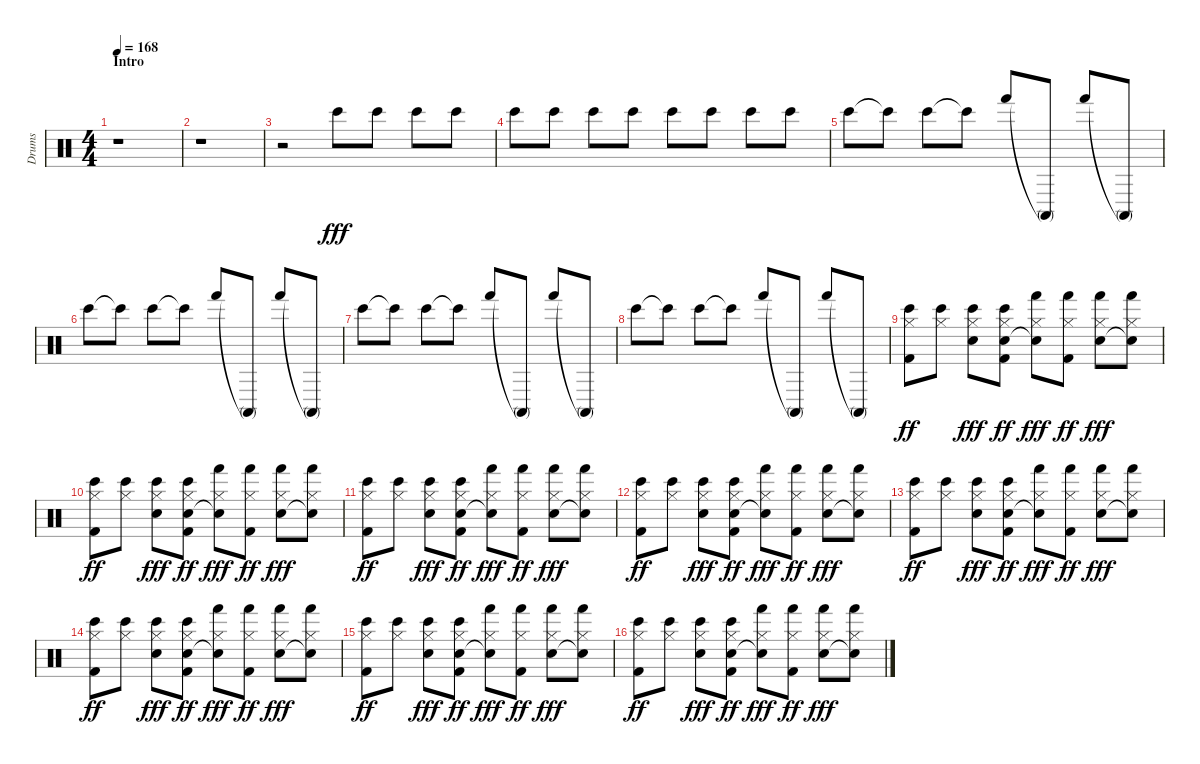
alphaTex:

\track ("Drums" "Drums") {instrument percussion}
\staff {score}
\articulation defaults
\ts (4 4)
\section ("" "Intro")
\tempo 168
\clef neutral
\ks c
r.1{dy fff} |
r.1 |
r.2{volume 8} "Bongo High (hit)".8{volume 15} "Bongo High (hit)".8 "Bongo High (hit)".8 "Bongo High (hit)".8 |
"Bongo High (hit)".8 "Bongo High (hit)".8 "Bongo High (hit)".8 "Bongo High (hit)".8 "Bongo High (hit)".8 "Bongo High (hit)".8 "Bongo High (hit)".8 "Bongo High (hit)".8 |
"Bongo High (hit)".8 "Bongo High (hit)"{t}.8 "Bongo High (hit)".8 "Bongo High (hit)"{t}.8 "Hand (hit)".8 "Conga high (mute)"{t}.8 "Hand (hit)".8 "Conga high (mute)"{t}.8 |
"Bongo High (hit)".8 "Bongo High (hit)"{t}.8 "Bongo High (hit)".8 "Bongo High (hit)"{t}.8 "Hand (hit)".8 "Conga high (mute)"{t}.8 "Hand (hit)".8 "Conga high (mute)"{t}.8 |
"Bongo High (hit)".8 "Bongo High (hit)"{t}.8 "Bongo High (hit)".8 "Bongo High (hit)"{t}.8 "Hand (hit)".8 "Conga high (mute)"{t}.8 "Hand (hit)".8 "Conga high (mute)"{t}.8 |
"Bongo High (hit)".8 "Bongo High (hit)"{t}.8 "Bongo High (hit)".8 "Bongo High (hit)"{t}.8 "Hand (hit)".8 "Conga high (mute)"{t}.8 "Hand (hit)".8 "Conga high (mute)"{t}.8 |
("Bongo High (hit)" "Hi-Hat (closed)" "Kick (hit) 2").8{dy ff} ("Bongo High (hit)" "Hi-Hat (closed)").8 ("Bongo High (hit)" "Hi-Hat (closed)" "Electric Snare (hit)").8{dy fff} ("Bongo High (hit)" "Hi-Hat (closed)" "Electric Snare (hit)" "Kick (hit) 2").8{dy ff} ("Hand (hit)" "Hi-Hat (closed)" "Electric Snare (hit)"{t}).8{dy fff} ("Hand (hit)" "Hi-Hat (closed)" "Kick (hit) 2").8{dy ff} ("Hand (hit)" "Hi-Hat (closed)" "Electric Snare (hit)").8{dy fff} ("Hand (hit)" "Hi-Hat (closed)" "Snare (hit)"{t}).8 |
("Bongo High (hit)" "Hi-Hat (closed)" "Kick (hit) 2").8{dy ff} ("Bongo High (hit)" "Hi-Hat (closed)").8 ("Bongo High (hit)" "Hi-Hat (closed)" "Electric Snare (hit)").8{dy fff} ("Bongo High (hit)" "Hi-Hat (closed)" "Electric Snare (hit)" "Kick (hit) 2").8{dy ff} ("Hand (hit)" "Hi-Hat (closed)" "Electric Snare (hit)"{t}).8{dy fff} ("Hand (hit)" "Hi-Hat (closed)" "Kick (hit) 2").8{dy ff} ("Hand (hit)" "Hi-Hat (closed)" "Electric Snare (hit)").8{dy fff} ("Hand (hit)" "Hi-Hat (closed)" "Snare (hit)"{t}).8 |
("Bongo High (hit)" "Hi-Hat (closed)" "Kick (hit) 2").8{dy ff} ("Bongo High (hit)" "Hi-Hat (closed)").8 ("Bongo High (hit)" "Hi-Hat (closed)" "Electric Snare (hit)").8{dy fff} ("Bongo High (hit)" "Hi-Hat (closed)" "Electric Snare (hit)" "Kick (hit) 2").8{dy ff} ("Hand (hit)" "Hi-Hat (closed)" "Electric Snare (hit)"{t}).8{dy fff} ("Hand (hit)" "Hi-Hat (closed)" "Kick (hit) 2").8{dy ff} ("Hand (hit)" "Hi-Hat (closed)" "Electric Snare (hit)").8{dy fff} ("Hand (hit)" "Hi-Hat (closed)" "Snare (hit)"{t}).8 |
("Bongo High (hit)" "Hi-Hat (closed)" "Kick (hit) 2").8{dy ff} ("Bongo High (hit)" "Hi-Hat (closed)").8 ("Bongo High (hit)" "Hi-Hat (closed)" "Electric Snare (hit)").8{dy fff} ("Bongo High (hit)" "Hi-Hat (closed)" "Electric Snare (hit)" "Kick (hit) 2").8{dy ff} ("Hand (hit)" "Hi-Hat (closed)" "Electric Snare (hit)"{t}).8{dy fff} ("Hand (hit)" "Hi-Hat (closed)" "Kick (hit) 2").8{dy ff} ("Hand (hit)" "Hi-Hat (closed)" "Electric Snare (hit)").8{dy fff} ("Hand (hit)" "Hi-Hat (closed)" "Snare (hit)"{t}).8 |
("Bongo High (hit)" "Hi-Hat (closed)" "Kick (hit) 2").8{dy ff} ("Bongo High (hit)" "Hi-Hat (closed)").8 ("Bongo High (hit)" "Hi-Hat (closed)" "Electric Snare (hit)").8{dy fff} ("Bongo High (hit)" "Hi-Hat (closed)" "Electric Snare (hit)" "Kick (hit) 2").8{dy ff} ("Hand (hit)" "Hi-Hat (closed)" "Electric Snare (hit)"{t}).8{dy fff} ("Hand (hit)" "Hi-Hat (closed)" "Kick (hit) 2").8{dy ff} ("Hand (hit)" "Hi-Hat (closed)" "Electric Snare (hit)").8{dy fff} ("Hand (hit)" "Hi-Hat (closed)" "Snare (hit)"{t}).8 |
("Bongo High (hit)" "Hi-Hat (closed)" "Kick (hit) 2").8{dy ff} ("Bongo High (hit)" "Hi-Hat (closed)").8 ("Bongo High (hit)" "Hi-Hat (closed)" "Electric Snare (hit)").8{dy fff} ("Bongo High (hit)" "Hi-Hat (closed)" "Electric Snare (hit)" "Kick (hit) 2").8{dy ff} ("Hand (hit)" "Hi-Hat (closed)" "Electric Snare (hit)"{t}).8{dy fff} ("Hand (hit)" "Hi-Hat (closed)" "Kick (hit) 2").8{dy ff} ("Hand (hit)" "Hi-Hat (closed)" "Electric Snare (hit)").8{dy fff} ("Hand (hit)" "Hi-Hat (closed)" "Snare (hit)"{t}).8 |
("Bongo High (hit)" "Hi-Hat (closed)" "Kick (hit) 2").8{dy ff} ("Bongo High (hit)" "Hi-Hat (closed)").8 ("Bongo High (hit)" "Hi-Hat (closed)" "Electric Snare (hit)").8{dy fff} ("Bongo High (hit)" "Hi-Hat (closed)" "Electric Snare (hit)" "Kick (hit) 2").8{dy ff} ("Hand (hit)" "Hi-Hat (closed)" "Electric Snare (hit)"{t}).8{dy fff} ("Hand (hit)" "Hi-Hat (closed)" "Kick (hit) 2").8{dy ff} ("Hand (hit)" "Hi-Hat (closed)" "Electric Snare (hit)").8{dy fff} ("Hand (hit)" "Hi-Hat (closed)" "Snare (hit)"{t}).8 |
("Bongo High (hit)" "Hi-Hat (closed)" "Kick (hit) 2").8{dy ff} ("Bongo High (hit)" "Hi-Hat (closed)").8 ("Bongo High (hit)" "Hi-Hat (closed)" "Electric Snare (hit)").8{dy fff} ("Bongo High (hit)" "Hi-Hat (closed)" "Electric Snare (hit)" "Kick (hit) 2").8{dy ff} ("Hand (hit)" "Hi-Hat (closed)" "Electric Snare (hit)"{t}).8{dy fff} ("Hand (hit)" "Hi-Hat (closed)" "Kick (hit) 2").8{dy ff} ("Hand (hit)" "Hi-Hat (closed)" "Electric Snare (hit)").8{dy fff} ("Hand (hit)" "Hi-Hat (closed)" "Snare (hit)"{t}).8
